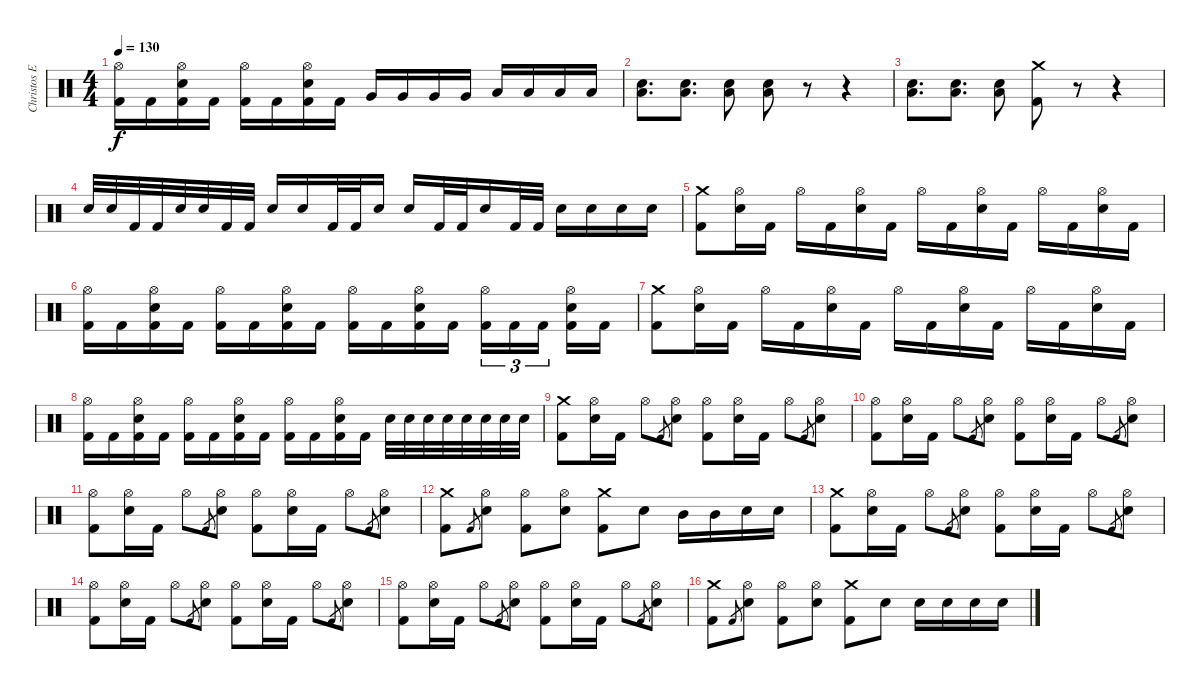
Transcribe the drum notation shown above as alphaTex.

\track ("Christos Efthimiadis" "Christos E") {instrument percussion}
\staff {score}
\articulation defaults
\ts (4 4)
\tempo 130
\clef neutral
\ks c
("Hi-Hat (open)" "Kick (hit) 2").16{dy f} "Kick (hit) 2".16 ("Snare (hit) 2" "Hi-Hat (open)" "Kick (hit) 2").16 "Kick (hit) 2".16 ("Hi-Hat (open)" "Kick (hit) 2").16 "Kick (hit) 2".16 ("Snare (hit) 2" "Hi-Hat (open)" "Kick (hit) 2").16 "Kick (hit) 2".16 "Very Low Tom (hit)".16 "Very Low Tom (hit)".16 "Very Low Tom (hit)".16 "Very Low Tom (hit)".16 "Low Floor Tom (hit)".16 "Low Floor Tom (hit)".16 "Low Floor Tom (hit)".16 "Low Floor Tom (hit)".16 |
("Snare (hit) 2" "Low Floor Tom (hit)").8{d} ("Snare (hit) 2" "Low Floor Tom (hit)").8{d} ("Snare (hit) 2" "Low Floor Tom (hit)").8 ("Snare (hit) 2" "Low Floor Tom (hit)").8 r.8 r.4 |
("Snare (hit) 2" "Low Floor Tom (hit)").8{d} ("Snare (hit) 2" "Low Floor Tom (hit)").8{d} ("Snare (hit) 2" "Low Floor Tom (hit)").8 ("Kick (hit) 2" "Crash medium (hit)").8 r.8 r.4 |
"Snare (hit) 2".32 "Snare (hit) 2".32 "Kick (hit) 2".32 "Kick (hit) 2".32 "Snare (hit) 2".32 "Snare (hit) 2".32 "Kick (hit) 2".32 "Kick (hit) 2".32 "Snare (hit) 2".16 "Snare (hit) 2".16 "Kick (hit) 2".32 "Kick (hit) 2".32 "Snare (hit) 2".16 "Snare (hit) 2".16 "Kick (hit) 2".32 "Kick (hit) 2".32 "Snare (hit) 2".16 "Kick (hit) 2".32 "Kick (hit) 2".32 "Snare (hit) 2".16 "Snare (hit) 2".16 "Snare (hit) 2".16 "Snare (hit) 2".16 |
("Crash medium (hit)" "Kick (hit) 2").8 ("Hi-Hat (open)" "Snare (hit) 2").16 "Kick (hit) 2".16 "Hi-Hat (open)".16 "Kick (hit) 2".16 ("Hi-Hat (open)" "Snare (hit) 2").16 "Kick (hit) 2".16 "Hi-Hat (open)".16 "Kick (hit) 2".16 ("Hi-Hat (open)" "Snare (hit) 2").16 "Kick (hit) 2".16 "Hi-Hat (open)".16 "Kick (hit) 2".16 ("Hi-Hat (open)" "Snare (hit) 2").16 "Kick (hit) 2".16 |
("Hi-Hat (open)" "Kick (hit) 2").16 "Kick (hit) 2".16 ("Snare (hit) 2" "Hi-Hat (open)" "Kick (hit) 2").16 "Kick (hit) 2".16 ("Hi-Hat (open)" "Kick (hit) 2").16 "Kick (hit) 2".16 ("Snare (hit) 2" "Hi-Hat (open)" "Kick (hit) 2").16 "Kick (hit) 2".16 ("Hi-Hat (open)" "Kick (hit) 2").16 "Kick (hit) 2".16 ("Snare (hit) 2" "Hi-Hat (open)" "Kick (hit) 2").16 "Kick (hit) 2".16 ("Hi-Hat (open)" "Kick (hit) 2").16{tu (3 2)} "Kick (hit) 2".16{tu (3 2)} "Kick (hit) 2".16{tu (3 2) beam splitsecondary} ("Hi-Hat (open)" "Snare (hit) 2" "Kick (hit) 2").16 "Kick (hit) 2".16 |
("Crash medium (hit)" "Kick (hit) 2").8 ("Hi-Hat (open)" "Snare (hit) 2").16 "Kick (hit) 2".16 "Hi-Hat (open)".16 "Kick (hit) 2".16 ("Hi-Hat (open)" "Snare (hit) 2").16 "Kick (hit) 2".16 "Hi-Hat (open)".16 "Kick (hit) 2".16 ("Hi-Hat (open)" "Snare (hit) 2").16 "Kick (hit) 2".16 "Hi-Hat (open)".16 "Kick (hit) 2".16 ("Hi-Hat (open)" "Snare (hit) 2").16 "Kick (hit) 2".16 |
("Hi-Hat (open)" "Kick (hit) 2").16 "Kick (hit) 2".16 ("Snare (hit) 2" "Hi-Hat (open)" "Kick (hit) 2").16 "Kick (hit) 2".16 ("Hi-Hat (open)" "Kick (hit) 2").16 "Kick (hit) 2".16 ("Snare (hit) 2" "Hi-Hat (open)" "Kick (hit) 2").16 "Kick (hit) 2".16 ("Hi-Hat (open)" "Kick (hit) 2").16 "Kick (hit) 2".16 ("Snare (hit) 2" "Hi-Hat (open)" "Kick (hit) 2").16 "Kick (hit) 2".16 "Snare (hit) 2".32 "Snare (hit) 2".32 "Snare (hit) 2".32 "Snare (hit) 2".32 "Snare (hit) 2".32 "Snare (hit) 2".32 "Snare (hit) 2".32 "Snare (hit) 2".32 |
("Crash medium (hit)" "Kick (hit) 2").8 ("Hi-Hat (open)" "Snare (hit) 2").16 "Kick (hit) 2".16 "Hi-Hat (open)".8 "Kick (hit) 2".8{gr} ("Hi-Hat (open)" "Snare (hit) 2").8 ("Hi-Hat (open)" "Kick (hit) 2").8 ("Hi-Hat (open)" "Snare (hit) 2").16 "Kick (hit) 2".16 "Hi-Hat (open)".8 "Kick (hit) 2".8{gr} ("Hi-Hat (open)" "Snare (hit) 2").8 |
("Hi-Hat (open)" "Kick (hit) 2").8 ("Hi-Hat (open)" "Snare (hit) 2").16 "Kick (hit) 2".16 "Hi-Hat (open)".8 "Kick (hit) 2".8{gr} ("Hi-Hat (open)" "Snare (hit) 2").8 ("Hi-Hat (open)" "Kick (hit) 2").8 ("Hi-Hat (open)" "Snare (hit) 2").16 "Kick (hit) 2".16 "Hi-Hat (open)".8 "Kick (hit) 2".8{gr} ("Hi-Hat (open)" "Snare (hit) 2").8 |
("Hi-Hat (open)" "Kick (hit) 2").8 ("Hi-Hat (open)" "Snare (hit) 2").16 "Kick (hit) 2".16 "Hi-Hat (open)".8 "Kick (hit) 2".8{gr} ("Hi-Hat (open)" "Snare (hit) 2").8 ("Hi-Hat (open)" "Kick (hit) 2").8 ("Hi-Hat (open)" "Snare (hit) 2").16 "Kick (hit) 2".16 "Hi-Hat (open)".8 "Kick (hit) 2".8{gr} ("Hi-Hat (open)" "Snare (hit) 2").8 |
("Crash medium (hit)" "Kick (hit) 2").8 "Kick (hit) 2".8{gr} ("Hi-Hat (open)" "Snare (hit) 2").8 ("Hi-Hat (open)" "Kick (hit) 2").8 ("Hi-Hat (open)" "Snare (hit) 2").8 ("Crash medium (hit)" "Kick (hit) 2").8 "Snare (hit) 2".8 "Mid Tom (hit)".16 "Mid Tom (hit)".16 "Snare (hit) 2".16 "Snare (hit) 2".16 |
("Crash medium (hit)" "Kick (hit) 2").8 ("Hi-Hat (open)" "Snare (hit) 2").16 "Kick (hit) 2".16 "Hi-Hat (open)".8 "Kick (hit) 2".8{gr} ("Hi-Hat (open)" "Snare (hit) 2").8 ("Hi-Hat (open)" "Kick (hit) 2").8 ("Hi-Hat (open)" "Snare (hit) 2").16 "Kick (hit) 2".16 "Hi-Hat (open)".8 "Kick (hit) 2".8{gr} ("Hi-Hat (open)" "Snare (hit) 2").8 |
("Hi-Hat (open)" "Kick (hit) 2").8 ("Hi-Hat (open)" "Snare (hit) 2").16 "Kick (hit) 2".16 "Hi-Hat (open)".8 "Kick (hit) 2".8{gr} ("Hi-Hat (open)" "Snare (hit) 2").8 ("Hi-Hat (open)" "Kick (hit) 2").8 ("Hi-Hat (open)" "Snare (hit) 2").16 "Kick (hit) 2".16 "Hi-Hat (open)".8 "Kick (hit) 2".8{gr} ("Hi-Hat (open)" "Snare (hit) 2").8 |
("Hi-Hat (open)" "Kick (hit) 2").8 ("Hi-Hat (open)" "Snare (hit) 2").16 "Kick (hit) 2".16 "Hi-Hat (open)".8 "Kick (hit) 2".8{gr} ("Hi-Hat (open)" "Snare (hit) 2").8 ("Hi-Hat (open)" "Kick (hit) 2").8 ("Hi-Hat (open)" "Snare (hit) 2").16 "Kick (hit) 2".16 "Hi-Hat (open)".8 "Kick (hit) 2".8{gr} ("Hi-Hat (open)" "Snare (hit) 2").8 |
("Crash medium (hit)" "Kick (hit) 2").8 "Kick (hit) 2".8{gr} ("Hi-Hat (open)" "Snare (hit) 2").8 ("Hi-Hat (open)" "Kick (hit) 2").8 ("Hi-Hat (open)" "Snare (hit) 2").8 ("Crash medium (hit)" "Kick (hit) 2").8 "Snare (hit) 2".8 "Snare (hit) 2".16 "Snare (hit) 2".16 "Snare (hit) 2".16 "Snare (hit) 2".16
